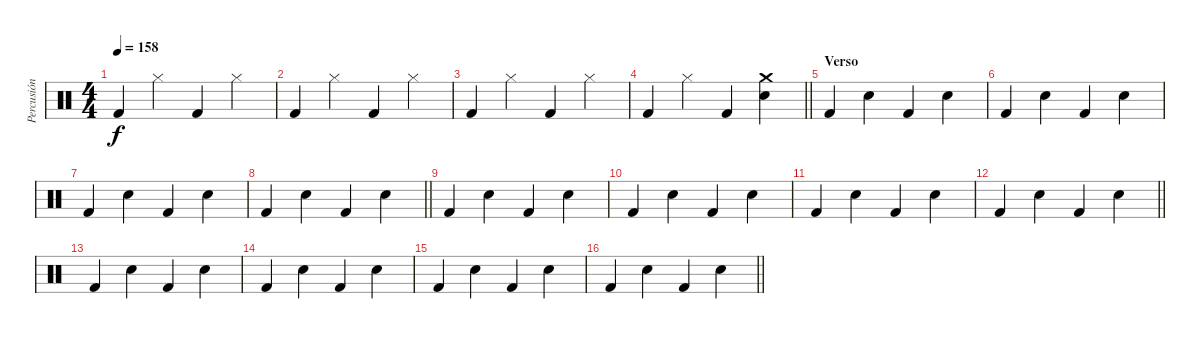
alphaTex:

\track ("Percusión" "Percusión") {instrument percussion}
\staff {score}
\articulation defaults
\ts (4 4)
\tempo 158
\clef neutral
\ks c "Kick (hit) 2".4{dy f} "Hi-Hat (closed)".4 "Kick (hit) 2".4 "Hi-Hat (closed)".4
|
"Kick (hit) 2".4 "Hi-Hat (closed)".4 "Kick (hit) 2".4 "Hi-Hat (closed)".4 |
"Kick (hit) 2".4 "Hi-Hat (closed)".4 "Kick (hit) 2".4 "Hi-Hat (closed)".4 |
\barLineRight lightlight "Kick (hit) 2".4 "Hi-Hat (closed)".4 "Kick (hit) 2".4
("Crash medium (hit)" "Electric Snare (hit)").4 |
\section ("" "Verso")
"Kick (hit) 2".4{volume 16} "Electric Snare (hit)".4 "Kick (hit) 2".4 "Electric Snare (hit)".4 |
"Kick (hit) 2".4 "Electric Snare (hit)".4 "Kick (hit) 2".4 "Electric Snare (hit)".4 |
"Kick (hit) 2".4{volume 16} "Electric Snare (hit)".4 "Kick (hit) 2".4 "Electric Snare (hit)".4 |
\barLineRight lightlight "Kick (hit) 2".4 "Electric Snare (hit)".4 "Kick (hit) 2".4 "Electric Snare (hit)".4
|
"Kick (hit) 2".4{volume 16} "Electric Snare (hit)".4 "Kick (hit) 2".4 "Electric Snare (hit)".4 |
"Kick (hit) 2".4 "Electric Snare (hit)".4 "Kick (hit) 2".4 "Electric Snare (hit)".4 |
"Kick (hit) 2".4{volume 16} "Electric Snare (hit)".4 "Kick (hit) 2".4 "Electric Snare (hit)".4 |
\barLineRight lightlight "Kick (hit) 2".4 "Electric Snare (hit)".4 "Kick (hit) 2".4 "Electric Snare (hit)".4
|
"Kick (hit) 2".4{volume 16} "Electric Snare (hit)".4 "Kick (hit) 2".4 "Electric Snare (hit)".4 |
"Kick (hit) 2".4 "Electric Snare (hit)".4 "Kick (hit) 2".4 "Electric Snare (hit)".4 |
"Kick (hit) 2".4{volume 16} "Electric Snare (hit)".4 "Kick (hit) 2".4 "Electric Snare (hit)".4 |
\barLineRight lightlight "Kick (hit) 2".4 "Electric Snare (hit)".4 "Kick (hit) 2".4 "Electric Snare (hit)".4
